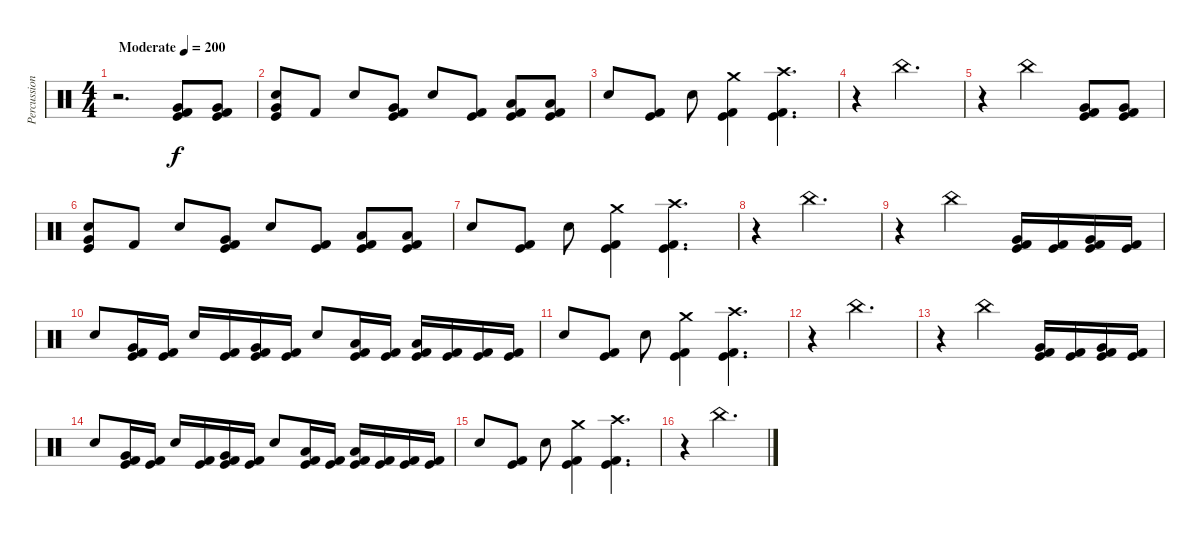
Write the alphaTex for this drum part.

\track ("Percussions" "Percussion") {instrument percussion}
\staff {score}
\articulation defaults
\ts (4 4)
\tempo (200 "Moderate")
\clef neutral
\ks c
r.2{d dy f} ("Very Low Tom (hit)" "Kick (hit)" "Kick (hit) 2").8 ("Very Low Tom (hit)" "Kick (hit)" "Kick (hit) 2").8 |
("Very Low Tom (hit)" "Kick (hit)" "Electric Snare (hit)").8 "Kick (hit) 2".8 "Electric Snare (hit)".8 ("Very Low Tom (hit)" "Kick (hit)" "Kick (hit) 2").8 "Electric Snare (hit)".8 ("Kick (hit)" "Kick (hit) 2").8 ("Low Floor Tom (hit)" "Kick (hit)" "Kick (hit) 2").8 ("Low Floor Tom (hit)" "Kick (hit)" "Kick (hit) 2").8 |
"Electric Snare (hit)".8 ("Kick (hit)" "Kick (hit) 2").8 "Electric Snare (hit)".8 ("Crash medium (hit)" "Kick (hit)" "Kick (hit) 2").4 ("Crash high (hit)" "Kick (hit)" "Kick (hit) 2").4{d} |
r.4 "China (hit)".2{d} |
r.4 "China (hit)".2 ("Very Low Tom (hit)" "Kick (hit)" "Kick (hit) 2").8 ("Very Low Tom (hit)" "Kick (hit)" "Kick (hit) 2").8 |
("Very Low Tom (hit)" "Kick (hit)" "Electric Snare (hit)").8 "Kick (hit) 2".8 "Electric Snare (hit)".8 ("Very Low Tom (hit)" "Kick (hit)" "Kick (hit) 2").8 "Electric Snare (hit)".8 ("Kick (hit)" "Kick (hit) 2").8 ("Low Floor Tom (hit)" "Kick (hit)" "Kick (hit) 2").8 ("Low Floor Tom (hit)" "Kick (hit)" "Kick (hit) 2").8 |
"Electric Snare (hit)".8 ("Kick (hit)" "Kick (hit) 2").8 "Electric Snare (hit)".8 ("Crash medium (hit)" "Kick (hit)" "Kick (hit) 2").4 ("Crash high (hit)" "Kick (hit)" "Kick (hit) 2").4{d} |
r.4 "China (hit)".2{d} |
r.4 "China (hit)".2 ("Very Low Tom (hit)" "Kick (hit)" "Kick (hit) 2").16 ("Kick (hit)" "Kick (hit) 2").16 ("Very Low Tom (hit)" "Kick (hit)" "Kick (hit) 2").16 ("Kick (hit)" "Kick (hit) 2").16 |
"Electric Snare (hit)".8 ("Very Low Tom (hit)" "Kick (hit)" "Kick (hit) 2").16 ("Kick (hit)" "Kick (hit) 2").16 "Electric Snare (hit)".16 ("Kick (hit)" "Kick (hit) 2").16 ("Very Low Tom (hit)" "Kick (hit)" "Kick (hit) 2").16 ("Kick (hit)" "Kick (hit) 2").16 "Electric Snare (hit)".8 ("Low Floor Tom (hit)" "Kick (hit)" "Kick (hit) 2").16 ("Kick (hit)" "Kick (hit) 2").16 ("Low Floor Tom (hit)" "Kick (hit)" "Kick (hit) 2").16 ("Kick (hit)" "Kick (hit) 2").16 ("Kick (hit)" "Kick (hit) 2").16 ("Kick (hit)" "Kick (hit) 2").16 |
"Electric Snare (hit)".8 ("Kick (hit)" "Kick (hit) 2").8 "Electric Snare (hit)".8 ("Crash medium (hit)" "Kick (hit)" "Kick (hit) 2").4 ("Crash high (hit)" "Kick (hit)" "Kick (hit) 2").4{d} |
r.4 "China (hit)".2{d} |
r.4 "China (hit)".2 ("Very Low Tom (hit)" "Kick (hit)" "Kick (hit) 2").16 ("Kick (hit)" "Kick (hit) 2").16 ("Very Low Tom (hit)" "Kick (hit)" "Kick (hit) 2").16 ("Kick (hit)" "Kick (hit) 2").16 |
"Electric Snare (hit)".8 ("Very Low Tom (hit)" "Kick (hit)" "Kick (hit) 2").16 ("Kick (hit)" "Kick (hit) 2").16 "Electric Snare (hit)".16 ("Kick (hit)" "Kick (hit) 2").16 ("Very Low Tom (hit)" "Kick (hit)" "Kick (hit) 2").16 ("Kick (hit)" "Kick (hit) 2").16 "Electric Snare (hit)".8 ("Low Floor Tom (hit)" "Kick (hit)" "Kick (hit) 2").16 ("Kick (hit)" "Kick (hit) 2").16 ("Low Floor Tom (hit)" "Kick (hit)" "Kick (hit) 2").16 ("Kick (hit)" "Kick (hit) 2").16 ("Kick (hit)" "Kick (hit) 2").16 ("Kick (hit)" "Kick (hit) 2").16 |
"Electric Snare (hit)".8 ("Kick (hit)" "Kick (hit) 2").8 "Electric Snare (hit)".8 ("Crash medium (hit)" "Kick (hit)" "Kick (hit) 2").4 ("Crash high (hit)" "Kick (hit)" "Kick (hit) 2").4{d} |
r.4 "China (hit)".2{d}
